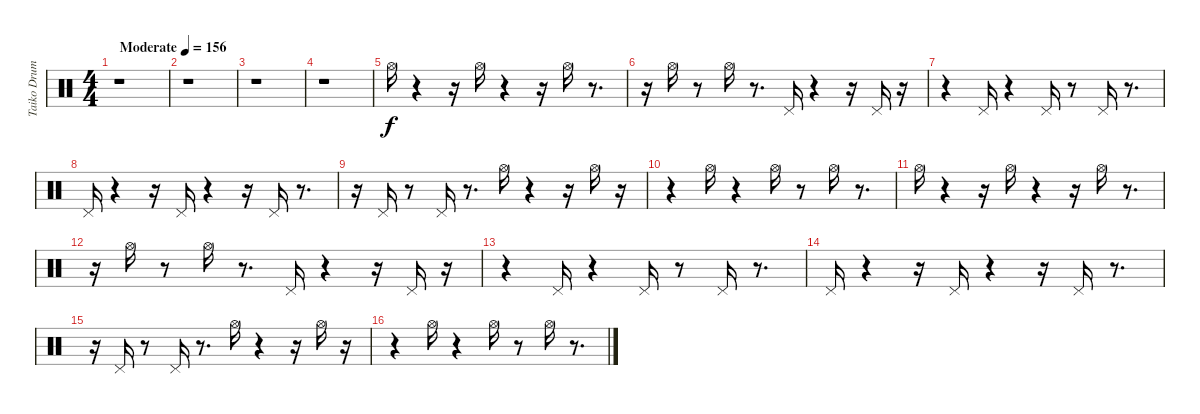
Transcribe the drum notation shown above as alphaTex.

\track ("Taiko Drum" "Taiko Drum") {instrument percussion}
\staff {score}
\articulation defaults
\ts (4 4)
\tempo (156 "Moderate")
\clef neutral
\ks c
r.1{dy f} |
r.1 |
r.1 |
r.1 |
"Hi-Hat (open)".16 r.4 r.16 "Hi-Hat (open)".16 r.4 r.16 "Hi-Hat (open)".16 r.8{d} |
r.16 "Hi-Hat (open)".16 r.8 "Hi-Hat (open)".16 r.8{d} "Pedal Hi-Hat (hit)".16 r.4 r.16 "Pedal Hi-Hat (hit)".16 r.16 |
r.4 "Pedal Hi-Hat (hit)".16 r.4 "Pedal Hi-Hat (hit)".16 r.8 "Pedal Hi-Hat (hit)".16 r.8{d} |
"Pedal Hi-Hat (hit)".16 r.4 r.16 "Pedal Hi-Hat (hit)".16 r.4 r.16 "Pedal Hi-Hat (hit)".16 r.8{d} |
r.16 "Pedal Hi-Hat (hit)".16 r.8 "Pedal Hi-Hat (hit)".16 r.8{d} "Hi-Hat (open)".16 r.4 r.16 "Hi-Hat (open)".16 r.16 |
r.4 "Hi-Hat (open)".16 r.4 "Hi-Hat (open)".16 r.8 "Hi-Hat (open)".16 r.8{d} |
"Hi-Hat (open)".16 r.4 r.16 "Hi-Hat (open)".16 r.4 r.16 "Hi-Hat (open)".16 r.8{d} |
r.16 "Hi-Hat (open)".16 r.8 "Hi-Hat (open)".16 r.8{d} "Pedal Hi-Hat (hit)".16 r.4 r.16 "Pedal Hi-Hat (hit)".16 r.16 |
r.4 "Pedal Hi-Hat (hit)".16 r.4 "Pedal Hi-Hat (hit)".16 r.8 "Pedal Hi-Hat (hit)".16 r.8{d} |
"Pedal Hi-Hat (hit)".16 r.4 r.16 "Pedal Hi-Hat (hit)".16 r.4 r.16 "Pedal Hi-Hat (hit)".16 r.8{d} |
r.16 "Pedal Hi-Hat (hit)".16 r.8 "Pedal Hi-Hat (hit)".16 r.8{d} "Hi-Hat (open)".16 r.4 r.16 "Hi-Hat (open)".16 r.16 |
r.4 "Hi-Hat (open)".16 r.4 "Hi-Hat (open)".16 r.8 "Hi-Hat (open)".16 r.8{d}
